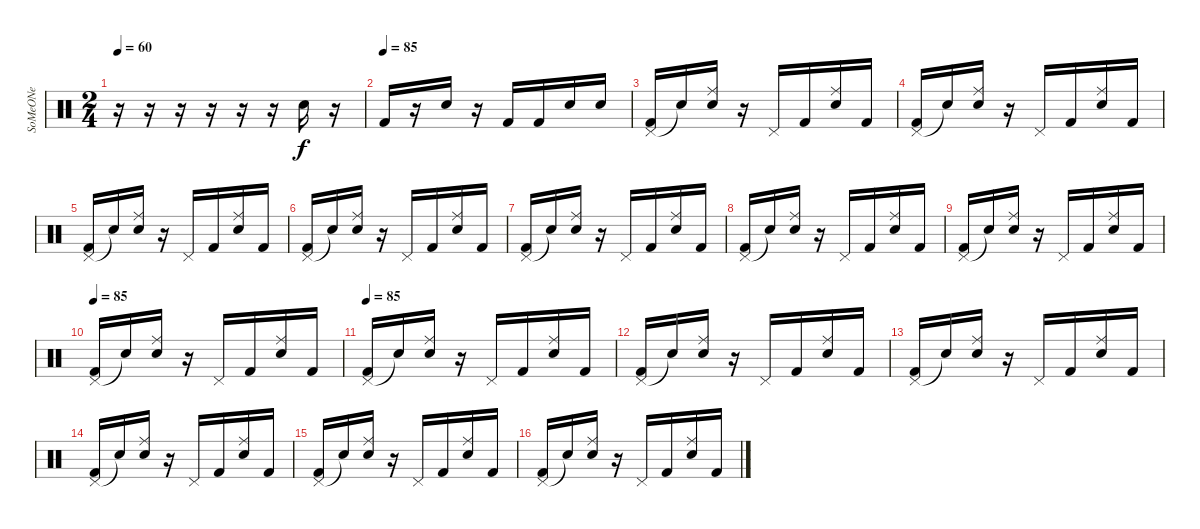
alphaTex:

\track ("SoMeONe" "SoMeONe") {instrument percussion}
\staff {score}
\articulation defaults
\ts (2 4)
\tempo 60
\clef neutral
\ks c
r.16{dy f} r.16 r.16 r.16 r.16 r.16 "Electric Snare (hit)".16 r.16 |
\tempo (85)
"Kick (hit) 2".16 r.16 "Electric Snare (hit)".16 r.16 "Kick (hit) 2".16 "Kick (hit) 2".16 "Electric Snare (hit)".16 "Electric Snare (hit)".16 |
("Pedal Hi-Hat (hit)" "Kick (hit) 2").16 "Snare (hit)"{t}.16 ("Ride (middle)" "Electric Snare (hit)").16 r.16 "Pedal Hi-Hat (hit)".16 "Kick (hit) 2".16 ("Ride (middle)" "Electric Snare (hit)").16 "Kick (hit) 2".16 |
("Pedal Hi-Hat (hit)" "Kick (hit) 2").16 "Snare (hit)"{t}.16 ("Ride (middle)" "Electric Snare (hit)").16 r.16 "Pedal Hi-Hat (hit)".16 "Kick (hit) 2".16 ("Ride (middle)" "Electric Snare (hit)").16 "Kick (hit) 2".16 |
("Pedal Hi-Hat (hit)" "Kick (hit) 2").16 "Snare (hit)"{t}.16 ("Ride (middle)" "Electric Snare (hit)").16 r.16 "Pedal Hi-Hat (hit)".16 "Kick (hit) 2".16 ("Ride (middle)" "Electric Snare (hit)").16 "Kick (hit) 2".16 |
("Pedal Hi-Hat (hit)" "Kick (hit) 2").16 "Snare (hit)"{t}.16 ("Ride (middle)" "Electric Snare (hit)").16 r.16 "Pedal Hi-Hat (hit)".16 "Kick (hit) 2".16 ("Ride (middle)" "Electric Snare (hit)").16 "Kick (hit) 2".16 |
("Pedal Hi-Hat (hit)" "Kick (hit) 2").16 "Snare (hit)"{t}.16 ("Ride (middle)" "Electric Snare (hit)").16 r.16 "Pedal Hi-Hat (hit)".16 "Kick (hit) 2".16 ("Ride (middle)" "Electric Snare (hit)").16 "Kick (hit) 2".16 |
("Pedal Hi-Hat (hit)" "Kick (hit) 2").16 "Snare (hit)"{t}.16 ("Ride (middle)" "Electric Snare (hit)").16 r.16 "Pedal Hi-Hat (hit)".16 "Kick (hit) 2".16 ("Ride (middle)" "Electric Snare (hit)").16 "Kick (hit) 2".16 |
("Pedal Hi-Hat (hit)" "Kick (hit) 2").16 "Snare (hit)"{t}.16 ("Ride (middle)" "Electric Snare (hit)").16 r.16 "Pedal Hi-Hat (hit)".16 "Kick (hit) 2".16 ("Ride (middle)" "Electric Snare (hit)").16 "Kick (hit) 2".16 |
\tempo 85
("Pedal Hi-Hat (hit)" "Kick (hit) 2").16 "Snare (hit)"{t}.16 ("Ride (middle)" "Electric Snare (hit)").16 r.16 "Pedal Hi-Hat (hit)".16 "Kick (hit) 2".16 ("Ride (middle)" "Electric Snare (hit)").16 "Kick (hit) 2".16 |
\tempo 85
("Pedal Hi-Hat (hit)" "Kick (hit) 2").16 "Snare (hit)"{t}.16 ("Ride (middle)" "Electric Snare (hit)").16 r.16 "Pedal Hi-Hat (hit)".16 "Kick (hit) 2".16 ("Ride (middle)" "Electric Snare (hit)").16 "Kick (hit) 2".16 |
("Pedal Hi-Hat (hit)" "Kick (hit) 2").16 "Snare (hit)"{t}.16 ("Ride (middle)" "Electric Snare (hit)").16 r.16 "Pedal Hi-Hat (hit)".16 "Kick (hit) 2".16 ("Ride (middle)" "Electric Snare (hit)").16 "Kick (hit) 2".16 |
("Pedal Hi-Hat (hit)" "Kick (hit) 2").16 "Snare (hit)"{t}.16 ("Ride (middle)" "Electric Snare (hit)").16 r.16 "Pedal Hi-Hat (hit)".16 "Kick (hit) 2".16 ("Ride (middle)" "Electric Snare (hit)").16 "Kick (hit) 2".16 |
("Pedal Hi-Hat (hit)" "Kick (hit) 2").16 "Snare (hit)"{t}.16 ("Ride (middle)" "Electric Snare (hit)").16 r.16 "Pedal Hi-Hat (hit)".16 "Kick (hit) 2".16 ("Ride (middle)" "Electric Snare (hit)").16 "Kick (hit) 2".16 |
("Pedal Hi-Hat (hit)" "Kick (hit) 2").16 "Snare (hit)"{t}.16 ("Ride (middle)" "Electric Snare (hit)").16 r.16 "Pedal Hi-Hat (hit)".16 "Kick (hit) 2".16 ("Ride (middle)" "Electric Snare (hit)").16 "Kick (hit) 2".16 |
("Pedal Hi-Hat (hit)" "Kick (hit) 2").16 "Snare (hit)"{t}.16 ("Ride (middle)" "Electric Snare (hit)").16 r.16 "Pedal Hi-Hat (hit)".16 "Kick (hit) 2".16 ("Ride (middle)" "Electric Snare (hit)").16 "Kick (hit) 2".16
